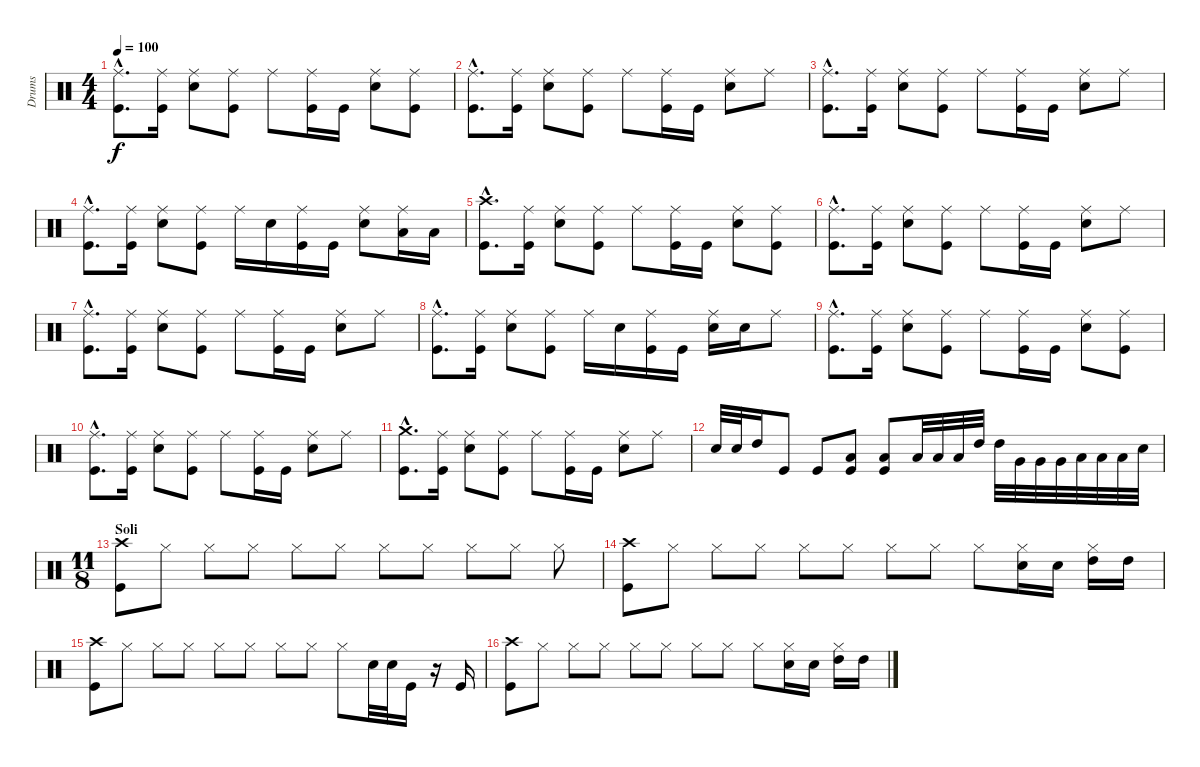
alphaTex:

\track ("Drums" "Drums") {instrument percussion}
\staff {score}
\articulation defaults
\ts (4 4)
\tempo 100
\clef neutral
\ks c
("Kick (hit)"{hac} "Ride (middle)"{hac}).8{d dy f volume 13} ("Kick (hit)" "Ride (middle)").16 ("Snare (hit) 2" "Ride (middle)").8 ("Kick (hit)" "Ride (middle)").8 "Ride (middle)".8 ("Kick (hit)" "Ride (middle)").16 "Kick (hit)".16 ("Snare (hit) 2" "Ride (middle)").8 ("Kick (hit)" "Ride (middle)").8 |
("Kick (hit)"{hac} "Ride (middle)"{hac}).8{d} ("Kick (hit)" "Ride (middle)").16 ("Snare (hit) 2" "Ride (middle)").8 ("Kick (hit)" "Ride (middle)").8 "Ride (middle)".8 ("Kick (hit)" "Ride (middle)").16 "Kick (hit)".16 ("Snare (hit) 2" "Ride (middle)").8 "Ride (middle)".8 |
("Kick (hit)"{hac} "Ride (middle)"{hac}).8{d} ("Kick (hit)" "Ride (middle)").16 ("Snare (hit) 2" "Ride (middle)").8 ("Kick (hit)" "Ride (middle)").8 "Ride (middle)".8 ("Kick (hit)" "Ride (middle)").16 "Kick (hit)".16 ("Snare (hit) 2" "Ride (middle)").8 "Ride (middle)".8 |
("Kick (hit)"{hac} "Ride (middle)"{hac}).8{d} ("Kick (hit)" "Ride (middle)").16 ("Snare (hit) 2" "Ride (middle)").8 ("Kick (hit)" "Ride (middle)").8 "Ride (middle)".16 "Snare (hit) 2".16 ("Kick (hit)" "Ride (middle)").16 "Kick (hit)".16 ("Snare (hit) 2" "Ride (middle)").8 ("Low Tom (hit)" "Ride (middle)").16 "Low Tom (hit)".16 |
("Kick (hit)"{hac} "Crash high (hit)"{hac}).8{d volume 13} ("Kick (hit)" "Ride (middle)").16 ("Snare (hit) 2" "Ride (middle)").8 ("Kick (hit)" "Ride (middle)").8 "Ride (middle)".8 ("Kick (hit)" "Ride (middle)").16 "Kick (hit)".16 ("Snare (hit) 2" "Ride (middle)").8 ("Kick (hit)" "Ride (middle)").8 |
("Kick (hit)"{hac} "Ride (middle)"{hac}).8{d} ("Kick (hit)" "Ride (middle)").16 ("Snare (hit) 2" "Ride (middle)").8 ("Kick (hit)" "Ride (middle)").8 "Ride (middle)".8 ("Kick (hit)" "Ride (middle)").16 "Kick (hit)".16 ("Snare (hit) 2" "Ride (middle)").8 "Ride (middle)".8 |
("Kick (hit)"{hac} "Ride (middle)"{hac}).8{d} ("Kick (hit)" "Ride (middle)").16 ("Snare (hit) 2" "Ride (middle)").8 ("Kick (hit)" "Ride (middle)").8 "Ride (middle)".8 ("Kick (hit)" "Ride (middle)").16 "Kick (hit)".16 ("Snare (hit) 2" "Ride (middle)").8 "Ride (middle)".8 |
("Kick (hit)"{hac} "Ride (middle)"{hac}).8{d} ("Kick (hit)" "Ride (middle)").16 ("Snare (hit) 2" "Ride (middle)").8 ("Kick (hit)" "Ride (middle)").8 "Ride (middle)".16 "Snare (hit) 2".16 ("Kick (hit)" "Ride (middle)").16 "Kick (hit)".16 ("Snare (hit) 2" "Ride (middle)").16 "Snare (hit) 2".16 "Ride (middle)".8 |
("Kick (hit)"{hac} "Ride (middle)"{hac}).8{d volume 13} ("Kick (hit)" "Ride (middle)").16 ("Snare (hit) 2" "Ride (middle)").8 ("Kick (hit)" "Ride (middle)").8 "Ride (middle)".8 ("Kick (hit)" "Ride (middle)").16 "Kick (hit)".16 ("Snare (hit) 2" "Ride (middle)").8 ("Kick (hit)" "Ride (middle)").8 |
("Kick (hit)"{hac} "Ride (middle)"{hac}).8{d} ("Kick (hit)" "Ride (middle)").16 ("Snare (hit) 2" "Ride (middle)").8 ("Kick (hit)" "Ride (middle)").8 "Ride (middle)".8 ("Kick (hit)" "Ride (middle)").16 "Kick (hit)".16 ("Snare (hit) 2" "Ride (middle)").8 "Ride (middle)".8 |
("Kick (hit)"{hac} "Crash medium (hit)"{hac}).8{d} ("Kick (hit)" "Ride (middle)").16 ("Snare (hit) 2" "Ride (middle)").8 ("Kick (hit)" "Ride (middle)").8 "Ride (middle)".8 ("Kick (hit)" "Ride (middle)").16 "Kick (hit)".16 ("Snare (hit) 2" "Ride (middle)").8 "Ride (middle)".8 |
"Snare (hit) 2".32 "Snare (hit) 2".32 "High Tom (hit)".16 "Kick (hit)".8 "Kick (hit)".8 ("Kick (hit)" "Low Tom (hit)").8 ("Kick (hit)" "Low Tom (hit)").8 "Low Tom (hit)".32 "Low Tom (hit)".32 "Low Tom (hit)".32 "High Tom (hit)".32 "High Tom (hit)".32 "Very Low Tom (hit)".32 "Very Low Tom (hit)".32 "Very Low Tom (hit)".32 "Low Floor Tom (hit)".32 "Low Floor Tom (hit)".32 "Low Floor Tom (hit)".32 "Snare (hit)".32 |
\ts (11 8)
\section ("" "Soli")
("Kick (hit)" "Crash high (hit)").8 "Hi-Hat (closed)".8 "Hi-Hat (closed)".8 "Hi-Hat (closed)".8 "Hi-Hat (closed)".8 "Hi-Hat (closed)".8 "Hi-Hat (closed)".8 "Hi-Hat (closed)".8 "Hi-Hat (closed)".8 "Hi-Hat (closed)".8 "Hi-Hat (closed)".8 |
("Kick (hit)" "Crash high (hit)").8 "Hi-Hat (closed)".8 "Hi-Hat (closed)".8 "Hi-Hat (closed)".8 "Hi-Hat (closed)".8 "Hi-Hat (closed)".8 "Hi-Hat (closed)".8 "Hi-Hat (closed)".8 "Hi-Hat (closed)".8 ("Snare (hit) 2" "Hi-Hat (closed)").16 "Snare (hit) 2".16 ("High Tom (hit)" "Hi-Hat (closed)").16 "High Tom (hit)".16 |
("Kick (hit)" "Crash high (hit)").8 "Hi-Hat (closed)".8 "Hi-Hat (closed)".8 "Hi-Hat (closed)".8 "Hi-Hat (closed)".8 "Hi-Hat (closed)".8 "Hi-Hat (closed)".8 "Hi-Hat (closed)".8 "Hi-Hat (closed)".8 "Snare (hit) 2".32 "Snare (hit) 2".32 "Kick (hit)".16 r.16 "Kick (hit)".16 |
("Kick (hit)" "Crash high (hit)").8 "Hi-Hat (closed)".8 "Hi-Hat (closed)".8 "Hi-Hat (closed)".8 "Hi-Hat (closed)".8 "Hi-Hat (closed)".8 "Hi-Hat (closed)".8 "Hi-Hat (closed)".8 "Hi-Hat (closed)".8 ("Snare (hit) 2" "Hi-Hat (closed)").16 "Snare (hit) 2".16 ("High Tom (hit)" "Hi-Hat (closed)").16 "High Tom (hit)".16
